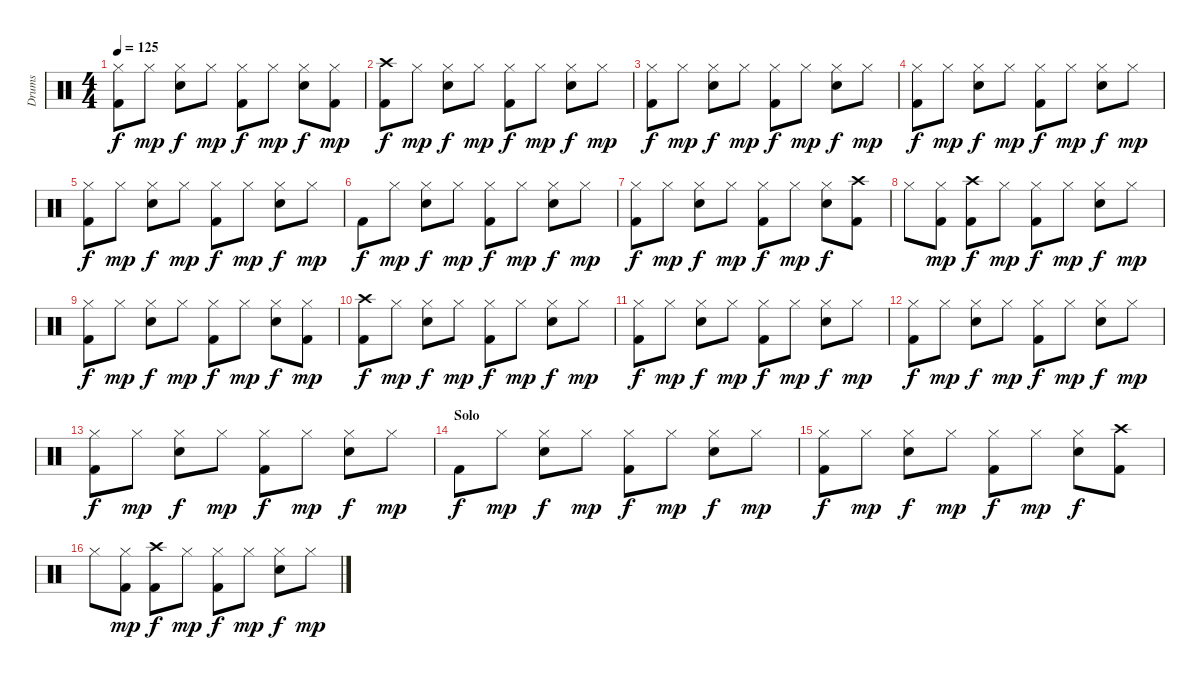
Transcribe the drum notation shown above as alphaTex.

\track ("Drums" "Drums") {instrument percussion}
\staff {score}
\articulation defaults
\ts (4 4)
\tempo 125
\clef neutral
\ks c
("Hi-Hat (closed)" "Kick (hit) 2").8{dy f} "Hi-Hat (closed)".8{dy mp} ("Hi-Hat (closed)" "Snare (hit) 2").8{dy f} "Hi-Hat (closed)".8{dy mp} ("Hi-Hat (closed)" "Kick (hit) 2").8{dy f} "Hi-Hat (closed)".8{dy mp} ("Hi-Hat (closed)" "Snare (hit) 2").8{dy f} ("Hi-Hat (closed)" "Kick (hit) 2").8{dy mp} |
("Crash high (hit)" "Kick (hit) 2").8{dy f} "Hi-Hat (closed)".8{dy mp} ("Hi-Hat (closed)" "Snare (hit) 2").8{dy f} "Hi-Hat (closed)".8{dy mp} ("Hi-Hat (closed)" "Kick (hit) 2").8{dy f} "Hi-Hat (closed)".8{dy mp} ("Hi-Hat (closed)" "Snare (hit) 2").8{dy f} "Hi-Hat (closed)".8{dy mp} |
("Hi-Hat (closed)" "Kick (hit) 2").8{dy f} "Hi-Hat (closed)".8{dy mp} ("Hi-Hat (closed)" "Snare (hit) 2").8{dy f} "Hi-Hat (closed)".8{dy mp} ("Hi-Hat (closed)" "Kick (hit) 2").8{dy f} "Hi-Hat (closed)".8{dy mp} ("Hi-Hat (closed)" "Snare (hit) 2").8{dy f} "Hi-Hat (closed)".8{dy mp} |
("Hi-Hat (closed)" "Kick (hit) 2").8{dy f} "Hi-Hat (closed)".8{dy mp} ("Hi-Hat (closed)" "Snare (hit) 2").8{dy f} "Hi-Hat (closed)".8{dy mp} ("Hi-Hat (closed)" "Kick (hit) 2").8{dy f} "Hi-Hat (closed)".8{dy mp} ("Hi-Hat (closed)" "Snare (hit) 2").8{dy f} "Hi-Hat (closed)".8{dy mp} |
("Hi-Hat (closed)" "Kick (hit) 2").8{dy f} "Hi-Hat (closed)".8{dy mp} ("Hi-Hat (closed)" "Snare (hit) 2").8{dy f} "Hi-Hat (closed)".8{dy mp} ("Hi-Hat (closed)" "Kick (hit) 2").8{dy f} "Hi-Hat (closed)".8{dy mp} ("Hi-Hat (closed)" "Snare (hit) 2").8{dy f} "Hi-Hat (closed)".8{dy mp} |
"Kick (hit) 2".8{dy f} "Hi-Hat (closed)".8{dy mp} ("Hi-Hat (closed)" "Snare (hit) 2").8{dy f} "Hi-Hat (closed)".8{dy mp} ("Hi-Hat (closed)" "Kick (hit) 2").8{dy f} "Hi-Hat (closed)".8{dy mp} ("Hi-Hat (closed)" "Snare (hit) 2").8{dy f} "Hi-Hat (closed)".8{dy mp} |
("Hi-Hat (closed)" "Kick (hit) 2").8{dy f} "Hi-Hat (closed)".8{dy mp} ("Hi-Hat (closed)" "Snare (hit) 2").8{dy f} "Hi-Hat (closed)".8{dy mp} ("Hi-Hat (closed)" "Kick (hit) 2").8{dy f} "Hi-Hat (closed)".8{dy mp} ("Hi-Hat (closed)" "Snare (hit) 2").8{dy f} ("Crash high (hit)" "Kick (hit) 2").8 |
"Hi-Hat (closed)".8 ("Hi-Hat (closed)" "Kick (hit) 2").8{dy mp} ("Crash high (hit)" "Kick (hit) 2").8{dy f} "Hi-Hat (closed)".8{dy mp} ("Hi-Hat (closed)" "Kick (hit) 2").8{dy f} "Hi-Hat (closed)".8{dy mp} ("Hi-Hat (closed)" "Snare (hit) 2").8{dy f} "Hi-Hat (closed)".8{dy mp} |
("Hi-Hat (closed)" "Kick (hit) 2").8{dy f} "Hi-Hat (closed)".8{dy mp} ("Hi-Hat (closed)" "Snare (hit) 2").8{dy f} "Hi-Hat (closed)".8{dy mp} ("Hi-Hat (closed)" "Kick (hit) 2").8{dy f} "Hi-Hat (closed)".8{dy mp} ("Hi-Hat (closed)" "Snare (hit) 2").8{dy f} ("Hi-Hat (closed)" "Kick (hit) 2").8{dy mp} |
("Crash high (hit)" "Kick (hit) 2").8{dy f} "Hi-Hat (closed)".8{dy mp} ("Hi-Hat (closed)" "Snare (hit) 2").8{dy f} "Hi-Hat (closed)".8{dy mp} ("Hi-Hat (closed)" "Kick (hit) 2").8{dy f} "Hi-Hat (closed)".8{dy mp} ("Hi-Hat (closed)" "Snare (hit) 2").8{dy f} "Hi-Hat (closed)".8{dy mp} |
("Hi-Hat (closed)" "Kick (hit) 2").8{dy f} "Hi-Hat (closed)".8{dy mp} ("Hi-Hat (closed)" "Snare (hit) 2").8{dy f} "Hi-Hat (closed)".8{dy mp} ("Hi-Hat (closed)" "Kick (hit) 2").8{dy f} "Hi-Hat (closed)".8{dy mp} ("Hi-Hat (closed)" "Snare (hit) 2").8{dy f} "Hi-Hat (closed)".8{dy mp} |
("Hi-Hat (closed)" "Kick (hit) 2").8{dy f} "Hi-Hat (closed)".8{dy mp} ("Hi-Hat (closed)" "Snare (hit) 2").8{dy f} "Hi-Hat (closed)".8{dy mp} ("Hi-Hat (closed)" "Kick (hit) 2").8{dy f} "Hi-Hat (closed)".8{dy mp} ("Hi-Hat (closed)" "Snare (hit) 2").8{dy f} "Hi-Hat (closed)".8{dy mp} |
("Hi-Hat (closed)" "Kick (hit) 2").8{dy f} "Hi-Hat (closed)".8{dy mp} ("Hi-Hat (closed)" "Snare (hit) 2").8{dy f} "Hi-Hat (closed)".8{dy mp} ("Hi-Hat (closed)" "Kick (hit) 2").8{dy f} "Hi-Hat (closed)".8{dy mp} ("Hi-Hat (closed)" "Snare (hit) 2").8{dy f} "Hi-Hat (closed)".8{dy mp} |
\section ("" "Solo")
"Kick (hit) 2".8{dy f} "Hi-Hat (closed)".8{dy mp} ("Hi-Hat (closed)" "Snare (hit) 2").8{dy f} "Hi-Hat (closed)".8{dy mp} ("Hi-Hat (closed)" "Kick (hit) 2").8{dy f} "Hi-Hat (closed)".8{dy mp} ("Hi-Hat (closed)" "Snare (hit) 2").8{dy f} "Hi-Hat (closed)".8{dy mp} |
("Hi-Hat (closed)" "Kick (hit) 2").8{dy f} "Hi-Hat (closed)".8{dy mp} ("Hi-Hat (closed)" "Snare (hit) 2").8{dy f} "Hi-Hat (closed)".8{dy mp} ("Hi-Hat (closed)" "Kick (hit) 2").8{dy f} "Hi-Hat (closed)".8{dy mp} ("Hi-Hat (closed)" "Snare (hit) 2").8{dy f} ("Crash high (hit)" "Kick (hit) 2").8 |
"Hi-Hat (closed)".8 ("Hi-Hat (closed)" "Kick (hit) 2").8{dy mp} ("Crash high (hit)" "Kick (hit) 2").8{dy f} "Hi-Hat (closed)".8{dy mp} ("Hi-Hat (closed)" "Kick (hit) 2").8{dy f} "Hi-Hat (closed)".8{dy mp} ("Hi-Hat (closed)" "Snare (hit) 2").8{dy f} "Hi-Hat (closed)".8{dy mp}
